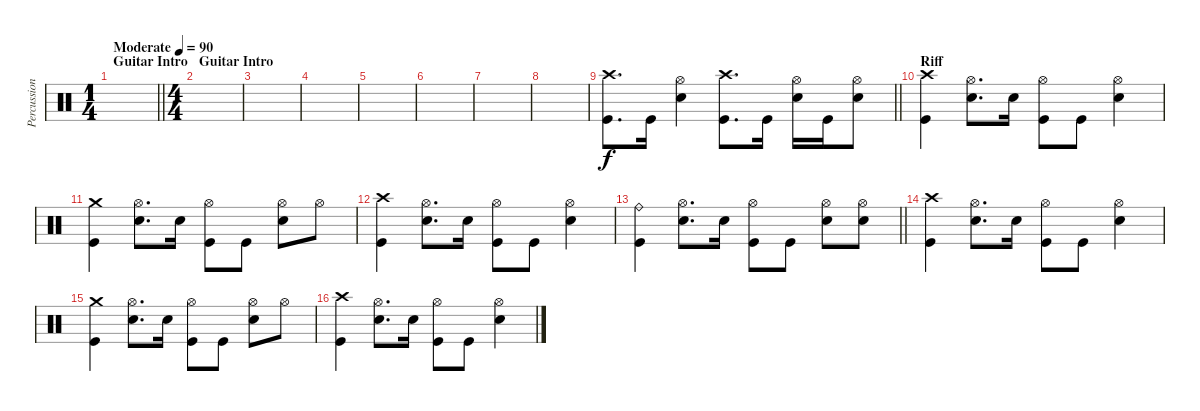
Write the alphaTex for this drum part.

\track ("Percussion" "Percussion") {instrument percussion}
\staff {score}
\articulation defaults
\ts (1 4)
\section ("" "Guitar Intro")
\tempo (90 "Moderate")
\clef neutral
\barLineRight lightlight
\ks c
|
\ts (4 4)
\section ("" "Guitar Intro")
|
|
|
|
|
|
|
\barLineRight lightlight
("Crash high (hit)" "Kick (hit)").8{d} "Kick (hit)".16 ("Electric Snare (hit)" "Hi-Hat (open)").4 ("Crash high (hit)" "Kick (hit)").8{d} "Kick (hit)".16 ("Electric Snare (hit)" "Hi-Hat (open)").16 "Kick (hit)".16 ("Electric Snare (hit)" "Hi-Hat (open)").8 |
\section ("" "Riff")
("Crash high (hit)" "Kick (hit)").4 ("Electric Snare (hit)" "Hi-Hat (open)").8{d} "Electric Snare (hit)".16 ("Hi-Hat (open)" "Kick (hit)").8 "Kick (hit)".8 ("Electric Snare (hit)" "Hi-Hat (open)").4 |
("Crash medium (hit)" "Kick (hit)").4 ("Electric Snare (hit)" "Hi-Hat (open)").8{d} "Electric Snare (hit)".16 ("Hi-Hat (open)" "Kick (hit)").8 "Kick (hit)".8 ("Electric Snare (hit)" "Hi-Hat (open)").8 "Hi-Hat (open)".8 |
("Crash high (hit)" "Kick (hit)").4 ("Electric Snare (hit)" "Hi-Hat (open)").8{d} "Electric Snare (hit)".16 ("Hi-Hat (open)" "Kick (hit)").8 "Kick (hit)".8 ("Electric Snare (hit)" "Hi-Hat (open)").4 |
\barLineRight lightlight
("Ride (bell)" "Kick (hit)").4 ("Electric Snare (hit)" "Hi-Hat (open)").8{d} "Electric Snare (hit)".16 ("Hi-Hat (open)" "Kick (hit)").8 "Kick (hit)".8 ("Electric Snare (hit)" "Hi-Hat (open)").8 ("Electric Snare (hit)" "Hi-Hat (open)").8 |
("Crash high (hit)" "Kick (hit)").4 ("Electric Snare (hit)" "Hi-Hat (open)").8{d} "Electric Snare (hit)".16 ("Hi-Hat (open)" "Kick (hit)").8 "Kick (hit)".8 ("Electric Snare (hit)" "Hi-Hat (open)").4 |
("Crash medium (hit)" "Kick (hit)").4 ("Electric Snare (hit)" "Hi-Hat (open)").8{d} "Electric Snare (hit)".16 ("Hi-Hat (open)" "Kick (hit)").8 "Kick (hit)".8 ("Electric Snare (hit)" "Hi-Hat (open)").8 "Hi-Hat (open)".8 |
("Crash high (hit)" "Kick (hit)").4 ("Electric Snare (hit)" "Hi-Hat (open)").8{d} "Electric Snare (hit)".16 ("Hi-Hat (open)" "Kick (hit)").8 "Kick (hit)".8 ("Electric Snare (hit)" "Hi-Hat (open)").4
